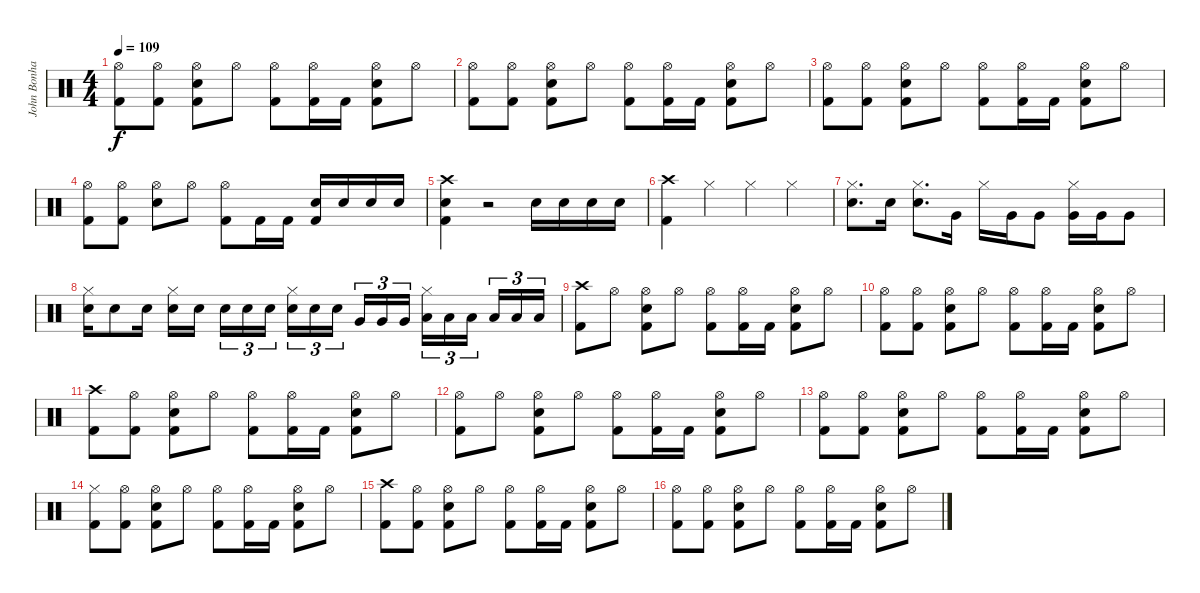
\track ("John Bonham" "John Bonha") {instrument percussion}
\staff {score}
\articulation defaults
\ts (4 4)
\tempo 109
\clef neutral
\ks c
("Kick (hit) 2" "Hi-Hat (open)").8{dy f} ("Kick (hit) 2" "Hi-Hat (open)").8 ("Kick (hit) 2" "Snare (hit) 2" "Hi-Hat (open)").8 "Hi-Hat (open)".8 ("Kick (hit) 2" "Hi-Hat (open)").8 ("Kick (hit) 2" "Hi-Hat (open)").16 "Kick (hit) 2".16 ("Kick (hit) 2" "Electric Snare (hit)" "Hi-Hat (open)").8 "Hi-Hat (open)".8 |
("Kick (hit) 2" "Hi-Hat (open)").8 ("Kick (hit) 2" "Hi-Hat (open)").8 ("Kick (hit) 2" "Snare (hit) 2" "Hi-Hat (open)").8 "Hi-Hat (open)".8 ("Kick (hit) 2" "Hi-Hat (open)").8 ("Kick (hit) 2" "Hi-Hat (open)").16 "Kick (hit) 2".16 ("Kick (hit) 2" "Electric Snare (hit)" "Hi-Hat (open)").8 "Hi-Hat (open)".8 |
("Kick (hit) 2" "Hi-Hat (open)").8 ("Kick (hit) 2" "Hi-Hat (open)").8 ("Kick (hit) 2" "Snare (hit) 2" "Hi-Hat (open)").8 "Hi-Hat (open)".8 ("Kick (hit) 2" "Hi-Hat (open)").8 ("Kick (hit) 2" "Hi-Hat (open)").16 "Kick (hit) 2".16 ("Kick (hit) 2" "Electric Snare (hit)" "Hi-Hat (open)").8 "Hi-Hat (open)".8 |
("Kick (hit) 2" "Hi-Hat (open)").8 ("Kick (hit) 2" "Hi-Hat (open)").8 ("Snare (hit) 2" "Hi-Hat (open)").8 "Hi-Hat (open)".8 ("Kick (hit) 2" "Hi-Hat (open)").8 "Kick (hit) 2".16 "Kick (hit) 2".16 ("Kick (hit) 2" "Electric Snare (hit)").16 "Electric Snare (hit)".16 "Snare (hit) 2".16 "Electric Snare (hit)".16 |
("Crash high (hit)" "Electric Snare (hit)" "Kick (hit) 2").4 r.2 "Snare (hit) 2".16 "Snare (hit) 2".16 "Snare (hit) 2".16 "Snare (hit) 2".16 |
("Crash high (hit)" "Kick (hit) 2").4 "Hi-Hat (closed)".4 "Hi-Hat (closed)".4 "Hi-Hat (closed)".4 |
("Electric Snare (hit)" "Hi-Hat (closed)").8{d} "Electric Snare (hit)".16 ("Snare (hit) 2" "Hi-Hat (closed)").8{d} "Very Low Tom (hit)".16 "Hi-Hat (closed)".16 "Very Low Tom (hit)".16 "Very Low Tom (hit)".8 ("Very Low Tom (hit)" "Hi-Hat (closed)").16 "Very Low Tom (hit)".16 "Very Low Tom (hit)".8 |
("Snare (hit) 2" "Hi-Hat (closed)").16 "Snare (hit) 2".8 "Snare (hit) 2".16 ("Snare (hit) 2" "Hi-Hat (closed)").16 "Snare (hit) 2".16{beam splitsecondary} "Snare (hit) 2".16{tu (3 2)} "Snare (hit) 2".16{tu (3 2)} "Snare (hit) 2".16{tu (3 2)} ("Snare (hit) 2" "Hi-Hat (closed)").16{tu (3 2)} "Snare (hit) 2".16{tu (3 2)} "Snare (hit) 2".16{tu (3 2) beam splitsecondary} "Very Low Tom (hit)".16{tu (3 2)} "Very Low Tom (hit)".16{tu (3 2)} "Very Low Tom (hit)".16{tu (3 2)} ("Low Floor Tom (hit)" "Hi-Hat (closed)").16{tu (3 2)} "Low Floor Tom (hit)".16{tu (3 2)} "Low Floor Tom (hit)".16{tu (3 2) beam splitsecondary} "Low Floor Tom (hit)".16{tu (3 2)} "Low Floor Tom (hit)".16{tu (3 2)} "Low Floor Tom (hit)".16{tu (3 2)} |
("Kick (hit) 2" "Crash high (hit)").8 "Hi-Hat (open)".8 ("Electric Snare (hit)" "Kick (hit) 2" "Hi-Hat (open)").8 "Hi-Hat (open)".8 ("Kick (hit) 2" "Hi-Hat (open)").8 ("Kick (hit) 2" "Hi-Hat (open)").16 "Kick (hit) 2".16 ("Kick (hit) 2" "Snare (hit) 2" "Hi-Hat (open)").8 "Hi-Hat (open)".8 |
("Kick (hit) 2" "Hi-Hat (open)").8 ("Kick (hit) 2" "Hi-Hat (open)").8 ("Kick (hit) 2" "Snare (hit) 2" "Hi-Hat (open)").8 "Hi-Hat (open)".8 ("Kick (hit) 2" "Hi-Hat (open)").8 ("Kick (hit) 2" "Hi-Hat (open)").16 "Kick (hit) 2".16 ("Kick (hit) 2" "Electric Snare (hit)" "Hi-Hat (open)").8 "Hi-Hat (open)".8 |
("Kick (hit) 2" "Crash high (hit)").8 ("Kick (hit) 2" "Hi-Hat (open)").8 ("Kick (hit) 2" "Snare (hit) 2" "Hi-Hat (open)").8 "Hi-Hat (open)".8 ("Kick (hit) 2" "Hi-Hat (open)").8 ("Kick (hit) 2" "Hi-Hat (open)").16 "Kick (hit) 2".16 ("Kick (hit) 2" "Electric Snare (hit)" "Hi-Hat (open)").8 "Hi-Hat (open)".8 |
("Kick (hit) 2" "Hi-Hat (open)").8 "Hi-Hat (open)".8 ("Kick (hit) 2" "Snare (hit) 2" "Hi-Hat (open)").8 "Hi-Hat (open)".8 ("Kick (hit) 2" "Hi-Hat (open)").8 ("Kick (hit) 2" "Hi-Hat (open)").16 "Kick (hit) 2".16 ("Kick (hit) 2" "Electric Snare (hit)" "Hi-Hat (open)").8 "Hi-Hat (open)".8 |
("Kick (hit) 2" "Hi-Hat (open)").8 ("Kick (hit) 2" "Hi-Hat (open)").8 ("Kick (hit) 2" "Snare (hit) 2" "Hi-Hat (open)").8 "Hi-Hat (open)".8 ("Kick (hit) 2" "Hi-Hat (open)").8 ("Kick (hit) 2" "Hi-Hat (open)").16 "Kick (hit) 2".16 ("Kick (hit) 2" "Electric Snare (hit)" "Hi-Hat (open)").8 "Hi-Hat (open)".8 |
("Kick (hit) 2" "Hi-Hat (closed)").8 ("Kick (hit) 2" "Hi-Hat (open)").8 ("Kick (hit) 2" "Snare (hit) 2" "Hi-Hat (open)").8 "Hi-Hat (open)".8 ("Kick (hit) 2" "Hi-Hat (open)").8 ("Kick (hit) 2" "Hi-Hat (open)").16 "Kick (hit) 2".16 ("Kick (hit) 2" "Electric Snare (hit)" "Hi-Hat (open)").8 "Hi-Hat (open)".8 |
("Kick (hit) 2" "Crash high (hit)").8 ("Kick (hit) 2" "Hi-Hat (open)").8 ("Kick (hit) 2" "Snare (hit) 2" "Hi-Hat (open)").8 "Hi-Hat (open)".8 ("Kick (hit) 2" "Hi-Hat (open)").8 ("Kick (hit) 2" "Hi-Hat (open)").16 "Kick (hit) 2".16 ("Kick (hit) 2" "Electric Snare (hit)" "Hi-Hat (open)").8 "Hi-Hat (open)".8 |
("Kick (hit) 2" "Hi-Hat (open)").8 ("Kick (hit) 2" "Hi-Hat (open)").8 ("Kick (hit) 2" "Snare (hit) 2" "Hi-Hat (open)").8 "Hi-Hat (open)".8 ("Kick (hit) 2" "Hi-Hat (open)").8 ("Kick (hit) 2" "Hi-Hat (open)").16 "Kick (hit) 2".16 ("Kick (hit) 2" "Electric Snare (hit)" "Hi-Hat (open)").8 "Hi-Hat (open)".8
